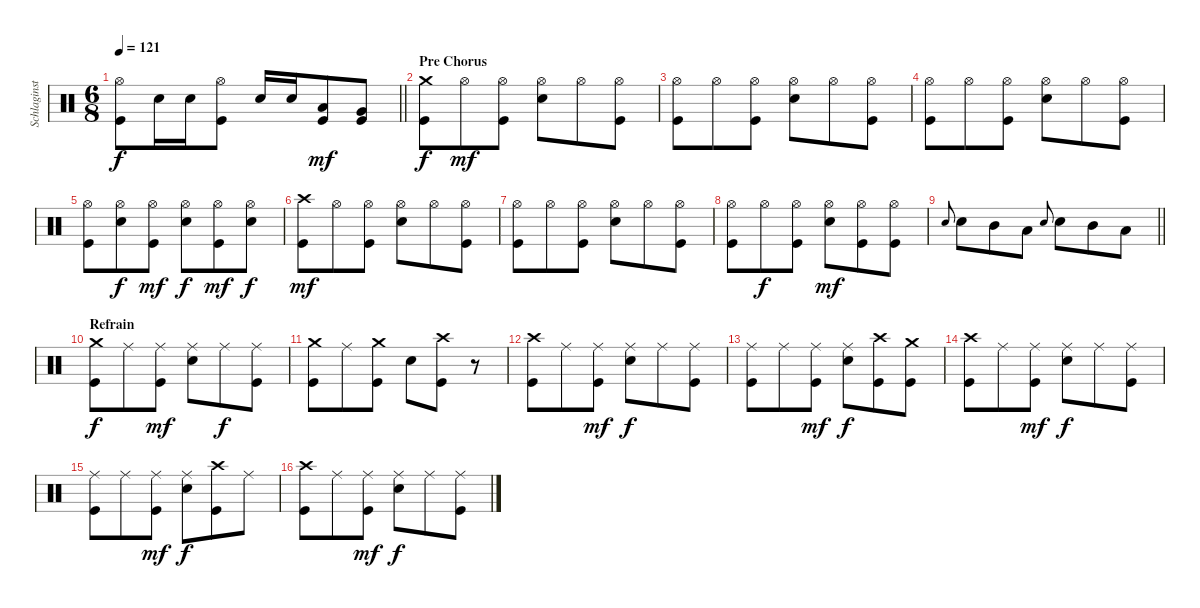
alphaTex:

\track ("Schlaginstrumente - Auswahl" "Schlaginst") {instrument percussion}
\staff {score}
\articulation defaults
\ts (6 8)
\tempo 121
\clef neutral
\barLineRight lightlight
\ks c
("Hi-Hat (open)" "Kick (hit)").8{dy f} "Snare (hit) 2".16 "Snare (hit) 2".16 ("Hi-Hat (open)" "Kick (hit)").8 "Snare (hit) 2".16 "Snare (hit) 2".16 ("Low Tom (hit)" "Kick (hit)").8{dy mf} ("Kick (hit)" "Very Low Tom (hit)").8 |
\section ("" "Pre Chorus")
("Kick (hit)" "Crash medium (hit)").8{dy f} "Hi-Hat (open)".8{dy mf} ("Hi-Hat (open)" "Kick (hit)").8 ("Hi-Hat (open)" "Snare (hit) 2").8 "Hi-Hat (open)".8 ("Hi-Hat (open)" "Kick (hit)").8 |
("Hi-Hat (open)" "Kick (hit)").8 "Hi-Hat (open)".8 ("Hi-Hat (open)" "Kick (hit)").8 ("Hi-Hat (open)" "Snare (hit) 2").8 "Hi-Hat (open)".8 ("Hi-Hat (open)" "Kick (hit)").8 |
("Hi-Hat (open)" "Kick (hit)").8 "Hi-Hat (open)".8 ("Hi-Hat (open)" "Kick (hit)").8 ("Hi-Hat (open)" "Snare (hit) 2").8 "Hi-Hat (open)".8 ("Hi-Hat (open)" "Kick (hit)").8 |
("Hi-Hat (open)" "Kick (hit)").8 ("Hi-Hat (open)" "Snare (hit) 2").8{dy f} ("Hi-Hat (open)" "Kick (hit)").8{dy mf} ("Hi-Hat (open)" "Snare (hit) 2").8{dy f} ("Hi-Hat (open)" "Kick (hit)").8{dy mf} ("Hi-Hat (open)" "Snare (hit) 2").8{dy f} |
("Crash high (hit)" "Kick (hit)").8{dy mf} "Hi-Hat (open)".8 ("Hi-Hat (open)" "Kick (hit)").8 ("Hi-Hat (open)" "Snare (hit) 2").8 "Hi-Hat (open)".8 ("Hi-Hat (open)" "Kick (hit)").8 |
("Hi-Hat (open)" "Kick (hit)").8 "Hi-Hat (open)".8 ("Hi-Hat (open)" "Kick (hit)").8 ("Hi-Hat (open)" "Snare (hit) 2").8 "Hi-Hat (open)".8 ("Hi-Hat (open)" "Kick (hit)").8 |
("Hi-Hat (open)" "Kick (hit)").8 "Hi-Hat (open)".8{dy f} ("Hi-Hat (open)" "Kick (hit)").8 ("Hi-Hat (open)" "Snare (hit) 2").8{dy mf} ("Hi-Hat (open)" "Kick (hit)").8 ("Hi-Hat (open)" "Kick (hit)").8 |
\barLineRight lightlight "Snare (hit) 2".8{gr onbeat} "Snare (hit) 2".8 "Mid Tom (hit)".8 "Low Tom (hit)".8 "Snare (hit) 2".8{gr onbeat} "Snare (hit) 2".8 "Mid Tom (hit)".8 "Low Tom (hit)".8
|
\section ("" "Refrain")
("Crash medium (hit)" "Kick (hit)").8{dy f} "Ride (middle)".8 ("Ride (middle)" "Kick (hit)").8{dy mf} ("Ride (middle)" "Snare (hit) 2").8 "Ride (middle)".8{dy f} ("Ride (middle)" "Kick (hit)").8 |
("Crash medium (hit)" "Kick (hit)").8 "Ride (middle)".8 ("Crash medium (hit)" "Kick (hit)").8 "Snare (hit) 2".8 ("Crash high (hit)" "Kick (hit)").8 r.8 |
("Crash high (hit)" "Kick (hit)").8 "Ride (middle)".8 ("Ride (middle)" "Kick (hit)").8{dy mf} ("Ride (middle)" "Snare (hit) 2").8{dy f} "Ride (middle)".8 ("Ride (middle)" "Kick (hit)").8 |
("Kick (hit)" "Ride (middle)").8 "Ride (middle)".8 ("Ride (middle)" "Kick (hit)").8{dy mf} ("Snare (hit) 2" "Ride (middle)").8{dy f} ("Crash high (hit)" "Kick (hit)").8 ("Crash medium (hit)" "Kick (hit)").8 |
("Crash high (hit)" "Kick (hit)").8 "Ride (middle)".8 ("Ride (middle)" "Kick (hit)").8{dy mf} ("Snare (hit) 2" "Ride (middle)").8{dy f} "Ride (middle)".8 ("Ride (middle)" "Kick (hit)").8 |
("Kick (hit)" "Ride (middle)").8 "Ride (middle)".8 ("Ride (middle)" "Kick (hit)").8{dy mf} ("Snare (hit) 2" "Ride (middle)").8{dy f} ("Crash high (hit)" "Kick (hit)").8 "Ride (middle)".8 |
("Crash high (hit)" "Kick (hit)").8 "Ride (middle)".8 ("Ride (middle)" "Kick (hit)").8{dy mf} ("Snare (hit) 2" "Ride (middle)").8{dy f} "Ride (middle)".8 ("Ride (middle)" "Kick (hit)").8
